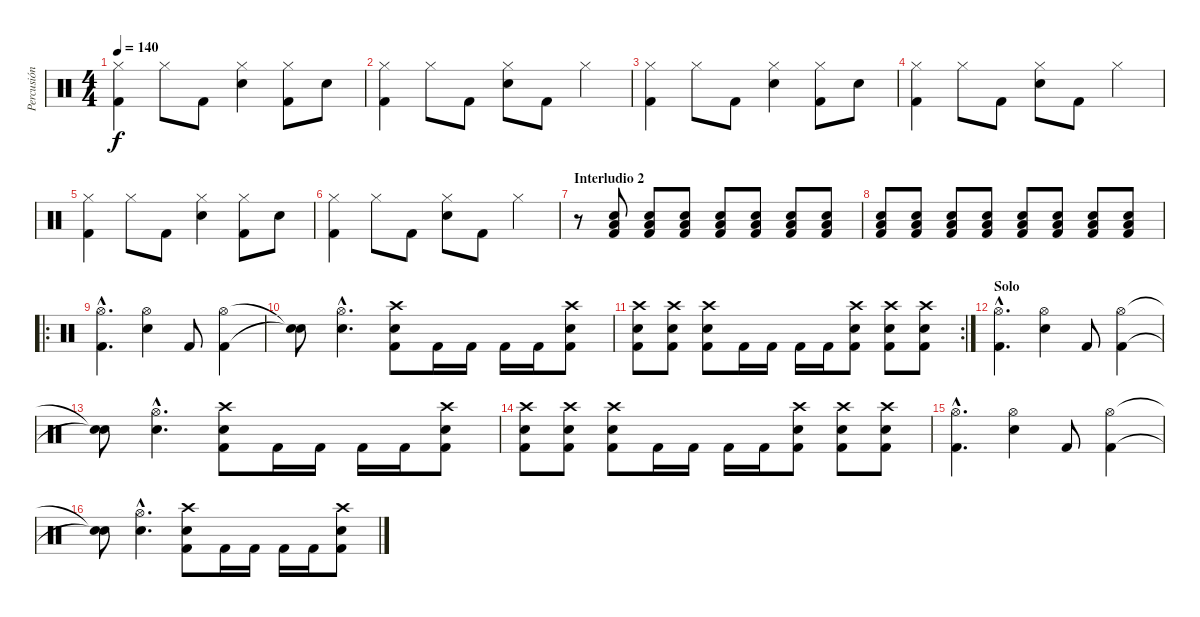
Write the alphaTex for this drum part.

\track ("Percusión" "Percusión") {instrument percussion}
\staff {score}
\articulation defaults
\ts (4 4)
\tempo 140
\clef neutral
\ks c
("Hi-Hat (closed)" "Kick (hit) 2").4{dy f} "Hi-Hat (closed)".8 "Kick (hit) 2".8 ("Hi-Hat (closed)" "Snare (hit) 2").4 ("Hi-Hat (closed)" "Kick (hit) 2").8 "Snare (hit) 2".8 |
("Hi-Hat (closed)" "Kick (hit) 2").4 "Hi-Hat (closed)".8 "Kick (hit) 2".8 ("Hi-Hat (closed)" "Snare (hit) 2").8 "Kick (hit) 2".8 "Hi-Hat (closed)".4 |
("Hi-Hat (closed)" "Kick (hit) 2").4 "Hi-Hat (closed)".8 "Kick (hit) 2".8 ("Hi-Hat (closed)" "Snare (hit) 2").4 ("Hi-Hat (closed)" "Kick (hit) 2").8 "Snare (hit) 2".8 |
("Hi-Hat (closed)" "Kick (hit) 2").4 "Hi-Hat (closed)".8 "Kick (hit) 2".8 ("Hi-Hat (closed)" "Snare (hit) 2").8 "Kick (hit) 2".8 "Hi-Hat (closed)".4 |
("Hi-Hat (closed)" "Kick (hit) 2").4 "Hi-Hat (closed)".8 "Kick (hit) 2".8 ("Hi-Hat (closed)" "Snare (hit) 2").4 ("Hi-Hat (closed)" "Kick (hit) 2").8 "Snare (hit) 2".8 |
("Hi-Hat (closed)" "Kick (hit) 2").4 "Hi-Hat (closed)".8 "Kick (hit) 2".8 ("Hi-Hat (closed)" "Snare (hit) 2").8 "Kick (hit) 2".8 "Hi-Hat (closed)".4 |
\section ("" "Interludio 2")
r.8 ("Snare (hit) 2" "Low Floor Tom (hit)" "Kick (hit) 2").8 ("Snare (hit) 2" "Low Floor Tom (hit)" "Kick (hit) 2").8 ("Snare (hit) 2" "Low Floor Tom (hit)" "Kick (hit) 2").8 ("Snare (hit) 2" "Low Floor Tom (hit)" "Kick (hit) 2").8 ("Snare (hit) 2" "Low Floor Tom (hit)" "Kick (hit) 2").8 ("Snare (hit) 2" "Low Floor Tom (hit)" "Kick (hit) 2").8 ("Snare (hit) 2" "Low Floor Tom (hit)" "Kick (hit) 2").8 |
("Snare (hit) 2" "Low Floor Tom (hit)" "Kick (hit) 2").8 ("Snare (hit) 2" "Low Floor Tom (hit)" "Kick (hit) 2").8 ("Snare (hit) 2" "Low Floor Tom (hit)" "Kick (hit) 2").8 ("Snare (hit) 2" "Low Floor Tom (hit)" "Kick (hit) 2").8 ("Snare (hit) 2" "Low Floor Tom (hit)" "Kick (hit) 2").8 ("Snare (hit) 2" "Low Floor Tom (hit)" "Kick (hit) 2").8 ("Snare (hit) 2" "Low Floor Tom (hit)" "Kick (hit) 2").8 ("Snare (hit) 2" "Low Floor Tom (hit)" "Kick (hit) 2").8 |
\ro
("Hi-Hat (open)"{hac} "Kick (hit) 2"{hac}).4{d} ("Hi-Hat (open)" "Snare (hit) 2").4 "Kick (hit) 2".8 ("Hi-Hat (open)" "Kick (hit) 2").4 |
("Snare (hit)"{t} "Snare (hit)"{t}).8 ("Hi-Hat (open)"{hac} "Snare (hit) 2"{hac}).4{d} ("Crash high (hit)" "Snare (hit) 2" "Kick (hit) 2").8 "Kick (hit) 2".16 "Kick (hit) 2".16 "Kick (hit) 2".16 "Kick (hit) 2".16 ("Crash high (hit)" "Snare (hit) 2" "Kick (hit) 2").8 |
\rc 2
("Crash high (hit)" "Snare (hit) 2" "Kick (hit) 2").8 ("Crash high (hit)" "Snare (hit) 2" "Kick (hit) 2").8 ("Crash high (hit)" "Snare (hit) 2" "Kick (hit) 2").8 "Kick (hit) 2".16 "Kick (hit) 2".16 "Kick (hit) 2".16 "Kick (hit) 2".16 ("Crash high (hit)" "Snare (hit) 2" "Kick (hit) 2").8 ("Crash high (hit)" "Snare (hit) 2" "Kick (hit) 2").8 ("Crash high (hit)" "Snare (hit) 2" "Kick (hit) 2").8 |
\section ("" "Solo")
("Hi-Hat (open)"{hac} "Kick (hit) 2"{hac}).4{d} ("Hi-Hat (open)" "Snare (hit) 2").4 "Kick (hit) 2".8 ("Hi-Hat (open)" "Kick (hit) 2").4 |
("Snare (hit)"{t} "Snare (hit)"{t}).8 ("Hi-Hat (open)"{hac} "Snare (hit) 2"{hac}).4{d} ("Crash high (hit)" "Snare (hit) 2" "Kick (hit) 2").8 "Kick (hit) 2".16 "Kick (hit) 2".16 "Kick (hit) 2".16 "Kick (hit) 2".16 ("Crash high (hit)" "Snare (hit) 2" "Kick (hit) 2").8 |
("Crash high (hit)" "Snare (hit) 2" "Kick (hit) 2").8 ("Crash high (hit)" "Snare (hit) 2" "Kick (hit) 2").8 ("Crash high (hit)" "Snare (hit) 2" "Kick (hit) 2").8 "Kick (hit) 2".16 "Kick (hit) 2".16 "Kick (hit) 2".16 "Kick (hit) 2".16 ("Crash high (hit)" "Snare (hit) 2" "Kick (hit) 2").8 ("Crash high (hit)" "Snare (hit) 2" "Kick (hit) 2").8 ("Crash high (hit)" "Snare (hit) 2" "Kick (hit) 2").8 |
("Hi-Hat (open)"{hac} "Kick (hit) 2"{hac}).4{d} ("Hi-Hat (open)" "Snare (hit) 2").4 "Kick (hit) 2".8 ("Hi-Hat (open)" "Kick (hit) 2").4 |
("Snare (hit)"{t} "Snare (hit)"{t}).8 ("Hi-Hat (open)"{hac} "Snare (hit) 2"{hac}).4{d} ("Crash high (hit)" "Snare (hit) 2" "Kick (hit) 2").8 "Kick (hit) 2".16 "Kick (hit) 2".16 "Kick (hit) 2".16 "Kick (hit) 2".16 ("Crash high (hit)" "Snare (hit) 2" "Kick (hit) 2").8
